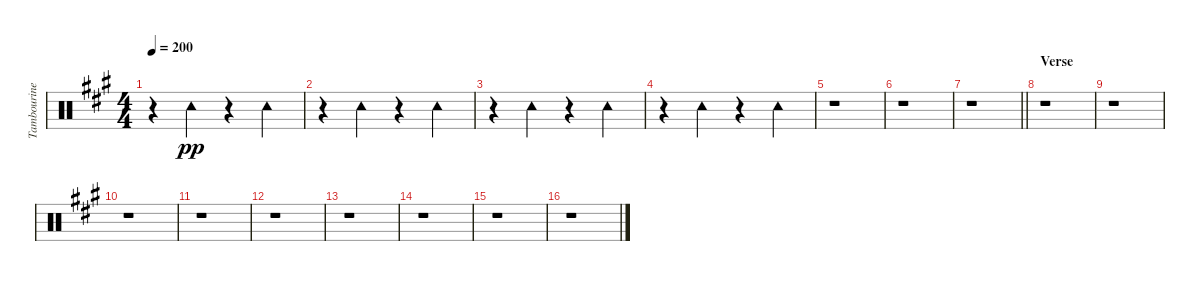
\track ("Tambourine" "Tambourine") {instrument percussion}
\staff {score}
\articulation defaults
\ts (4 4)
\tempo 200
\clef neutral
\ks a
r.4{dy pp} "Tambourine (hit)".4 r.4 "Tambourine (hit)".4 |
r.4 "Tambourine (hit)".4 r.4 "Tambourine (hit)".4 |
r.4 "Tambourine (hit)".4 r.4 "Tambourine (hit)".4 |
r.4 "Tambourine (hit)".4 r.4 "Tambourine (hit)".4 |
r.1 |
r.1 |
\barLineRight lightlight
r.1 |
\section ("" "Verse")
r.1 |
r.1 |
r.1 |
r.1 |
r.1 |
r.1 |
r.1 |
r.1 |
r.1
